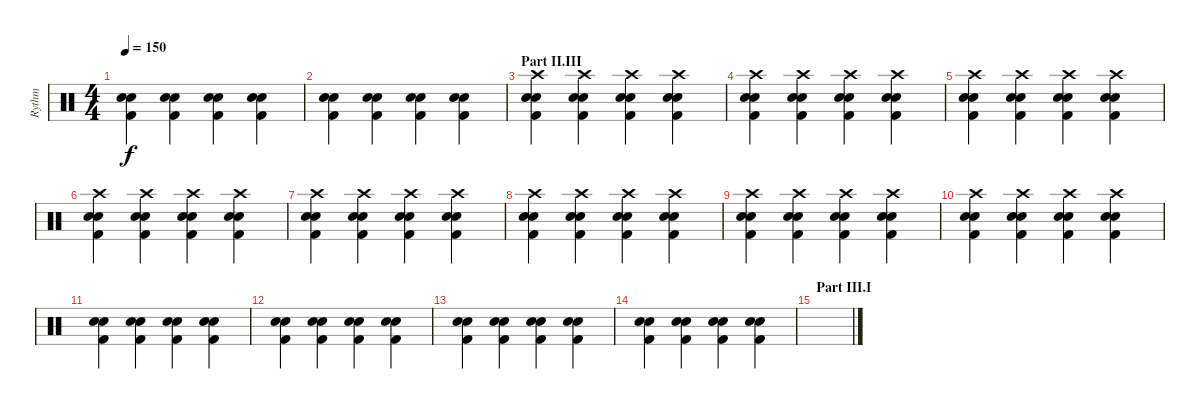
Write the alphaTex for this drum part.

\track ("Rythm" "Rythm") {instrument percussion}
\staff {score}
\articulation defaults
\ts (4 4)
\tempo 150
\clef neutral
\ks c
("Electric Snare (hit)" "Kick (hit) 2" "Snare (hit) 2").4{dy f} ("Electric Snare (hit)" "Kick (hit) 2" "Snare (hit) 2").4 ("Electric Snare (hit)" "Kick (hit) 2" "Snare (hit) 2").4 ("Electric Snare (hit)" "Kick (hit) 2" "Snare (hit) 2").4 |
("Electric Snare (hit)" "Kick (hit) 2" "Snare (hit) 2").4 ("Electric Snare (hit)" "Kick (hit) 2" "Snare (hit) 2").4 ("Electric Snare (hit)" "Kick (hit) 2" "Snare (hit) 2").4 ("Electric Snare (hit)" "Kick (hit) 2" "Snare (hit) 2").4 |
\section ("" "Part II.III")
("Electric Snare (hit)" "Kick (hit) 2" "Snare (hit) 2" "Crash high (hit)").4 ("Electric Snare (hit)" "Kick (hit) 2" "Snare (hit) 2" "Crash high (hit)").4 ("Electric Snare (hit)" "Kick (hit) 2" "Snare (hit) 2" "Crash high (hit)").4 ("Electric Snare (hit)" "Kick (hit) 2" "Snare (hit) 2" "Crash high (hit)").4 |
("Electric Snare (hit)" "Kick (hit) 2" "Snare (hit) 2" "Crash high (hit)").4 ("Electric Snare (hit)" "Kick (hit) 2" "Snare (hit) 2" "Crash high (hit)").4 ("Electric Snare (hit)" "Kick (hit) 2" "Snare (hit) 2" "Crash high (hit)").4 ("Electric Snare (hit)" "Kick (hit) 2" "Snare (hit) 2" "Crash high (hit)").4 |
("Electric Snare (hit)" "Kick (hit) 2" "Snare (hit) 2" "Crash high (hit)").4 ("Electric Snare (hit)" "Kick (hit) 2" "Snare (hit) 2" "Crash high (hit)").4 ("Electric Snare (hit)" "Kick (hit) 2" "Snare (hit) 2" "Crash high (hit)").4 ("Electric Snare (hit)" "Kick (hit) 2" "Snare (hit) 2" "Crash high (hit)").4 |
("Electric Snare (hit)" "Kick (hit) 2" "Snare (hit) 2" "Crash high (hit)").4 ("Electric Snare (hit)" "Kick (hit) 2" "Snare (hit) 2" "Crash high (hit)").4 ("Electric Snare (hit)" "Kick (hit) 2" "Snare (hit) 2" "Crash high (hit)").4 ("Electric Snare (hit)" "Kick (hit) 2" "Snare (hit) 2" "Crash high (hit)").4 |
("Electric Snare (hit)" "Kick (hit) 2" "Snare (hit) 2" "Crash high (hit)").4 ("Electric Snare (hit)" "Kick (hit) 2" "Snare (hit) 2" "Crash high (hit)").4 ("Electric Snare (hit)" "Kick (hit) 2" "Snare (hit) 2" "Crash high (hit)").4 ("Electric Snare (hit)" "Kick (hit) 2" "Snare (hit) 2" "Crash high (hit)").4 |
("Electric Snare (hit)" "Kick (hit) 2" "Snare (hit) 2" "Crash high (hit)").4 ("Electric Snare (hit)" "Kick (hit) 2" "Snare (hit) 2" "Crash high (hit)").4 ("Electric Snare (hit)" "Kick (hit) 2" "Snare (hit) 2" "Crash high (hit)").4 ("Electric Snare (hit)" "Kick (hit) 2" "Snare (hit) 2" "Crash high (hit)").4 |
("Electric Snare (hit)" "Kick (hit) 2" "Snare (hit) 2" "Crash high (hit)").4 ("Electric Snare (hit)" "Kick (hit) 2" "Snare (hit) 2" "Crash high (hit)").4 ("Electric Snare (hit)" "Kick (hit) 2" "Snare (hit) 2" "Crash high (hit)").4 ("Electric Snare (hit)" "Kick (hit) 2" "Snare (hit) 2" "Crash high (hit)").4 |
("Electric Snare (hit)" "Kick (hit) 2" "Snare (hit) 2" "Crash high (hit)").4 ("Electric Snare (hit)" "Kick (hit) 2" "Snare (hit) 2" "Crash high (hit)").4 ("Electric Snare (hit)" "Kick (hit) 2" "Snare (hit) 2" "Crash high (hit)").4 ("Electric Snare (hit)" "Kick (hit) 2" "Snare (hit) 2" "Crash high (hit)").4 |
("Electric Snare (hit)" "Kick (hit) 2" "Snare (hit) 2").4 ("Electric Snare (hit)" "Kick (hit) 2" "Snare (hit) 2").4 ("Electric Snare (hit)" "Kick (hit) 2" "Snare (hit) 2").4 ("Electric Snare (hit)" "Kick (hit) 2" "Snare (hit) 2").4 |
("Electric Snare (hit)" "Kick (hit) 2" "Snare (hit) 2").4 ("Electric Snare (hit)" "Kick (hit) 2" "Snare (hit) 2").4 ("Electric Snare (hit)" "Kick (hit) 2" "Snare (hit) 2").4 ("Electric Snare (hit)" "Kick (hit) 2" "Snare (hit) 2").4 |
("Electric Snare (hit)" "Kick (hit) 2" "Snare (hit) 2").4 ("Electric Snare (hit)" "Kick (hit) 2" "Snare (hit) 2").4 ("Electric Snare (hit)" "Kick (hit) 2" "Snare (hit) 2").4 ("Electric Snare (hit)" "Kick (hit) 2" "Snare (hit) 2").4 |
("Electric Snare (hit)" "Kick (hit) 2" "Snare (hit) 2").4 ("Electric Snare (hit)" "Kick (hit) 2" "Snare (hit) 2").4 ("Electric Snare (hit)" "Kick (hit) 2" "Snare (hit) 2").4 ("Electric Snare (hit)" "Kick (hit) 2" "Snare (hit) 2").4 |
\section ("" "Part III.I")
